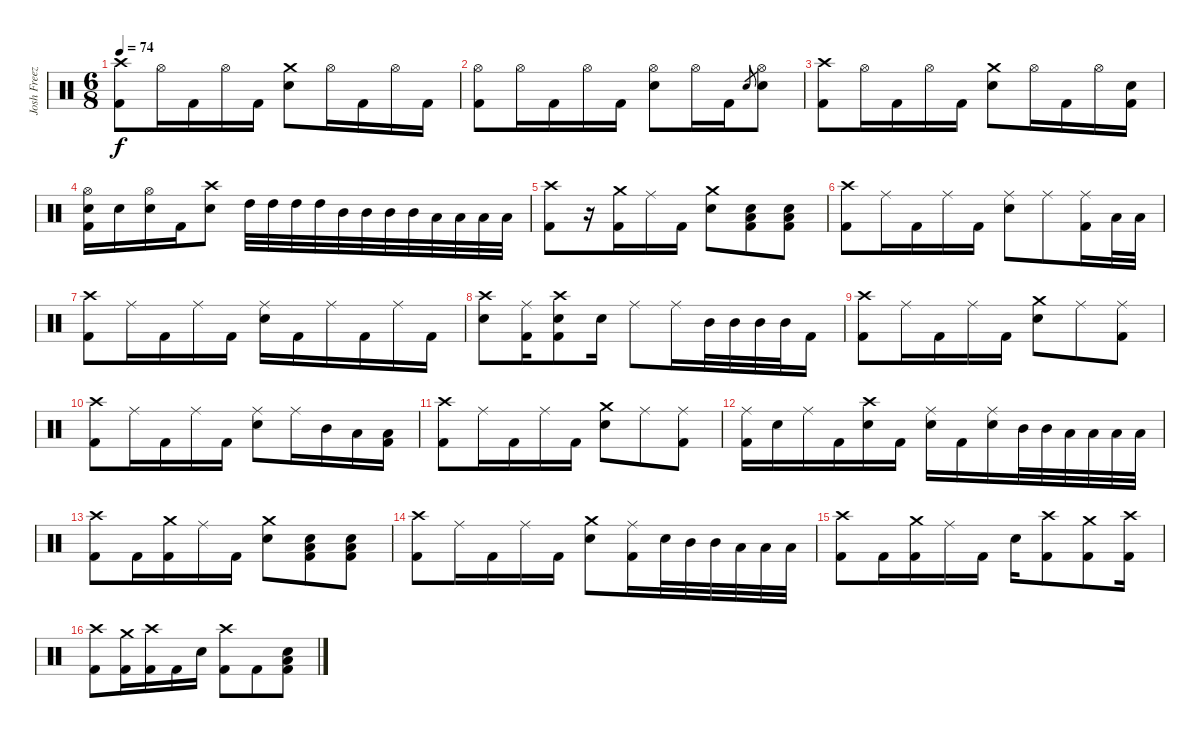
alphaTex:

\track ("Josh Freeze - Drums" "Josh Freez") {instrument percussion}
\staff {score}
\articulation defaults
\ts (6 8)
\tempo 74
\clef neutral
\ks c
("Crash high (hit)" "Kick (hit) 2").8{dy f} "Hi-Hat (open)".16 "Kick (hit) 2".16 "Hi-Hat (open)".16 "Kick (hit) 2".16 ("Crash medium (hit)" "Electric Snare (hit)").8 "Hi-Hat (open)".16 "Kick (hit) 2".16 "Hi-Hat (open)".16 "Kick (hit) 2".16 |
("Hi-Hat (open)" "Kick (hit) 2").8 "Hi-Hat (open)".16 "Kick (hit) 2".16 "Hi-Hat (open)".16 "Kick (hit) 2".16 ("Hi-Hat (open)" "Electric Snare (hit)").8 "Hi-Hat (open)".16 "Kick (hit) 2".16 "Electric Snare (hit)".8{gr} ("Hi-Hat (open)" "Electric Snare (hit)").8 |
("Crash high (hit)" "Kick (hit) 2").8 "Hi-Hat (open)".16 "Kick (hit) 2".16 "Hi-Hat (open)".16 "Kick (hit) 2".16 ("Crash medium (hit)" "Electric Snare (hit)").8 "Hi-Hat (open)".16 "Kick (hit) 2".16 "Hi-Hat (open)".16 ("Electric Snare (hit)" "Kick (hit) 2").16 |
("Hi-Hat (open)" "Electric Snare (hit)" "Kick (hit) 2").16 "Electric Snare (hit)".16 ("Hi-Hat (open)" "Electric Snare (hit)").16 "Kick (hit) 2".16 ("Crash high (hit)" "Electric Snare (hit)").8 "High Tom (hit)".32 "High Tom (hit)".32 "High Tom (hit)".32 "High Tom (hit)".32 "Mid Tom (hit)".32 "Mid Tom (hit)".32 "Mid Tom (hit)".32 "Mid Tom (hit)".32 "Low Tom (hit)".32 "Low Tom (hit)".32 "Low Tom (hit)".32 "Low Tom (hit)".32 |
("Crash high (hit)" "Kick (hit) 2").8 r.16 ("Crash medium (hit)" "Kick (hit) 2").16 "Ride (middle)".16 "Kick (hit) 2".16 ("Crash medium (hit)" "Electric Snare (hit)").8 ("Electric Snare (hit)" "Low Tom (hit)" "Kick (hit) 2").8 ("Electric Snare (hit)" "Low Tom (hit)" "Kick (hit) 2").8 |
("Crash high (hit)" "Kick (hit) 2").8 "Ride (middle)".16 "Kick (hit) 2".16 "Ride (middle)".16 "Kick (hit) 2".16 ("Ride (middle)" "Electric Snare (hit)").8 "Ride (middle)".8 ("Ride (middle)" "Kick (hit) 2").16 "Low Tom (hit)".32 "Low Tom (hit)".32 |
("Crash high (hit)" "Kick (hit) 2").8 "Ride (middle)".16 "Kick (hit) 2".16 "Ride (middle)".16 "Kick (hit) 2".16 ("Ride (middle)" "Electric Snare (hit)").16 "Kick (hit) 2".16 "Ride (middle)".16 "Kick (hit) 2".16 "Ride (middle)".16 "Kick (hit) 2".16 |
("Crash high (hit)" "Electric Snare (hit)").8 ("Ride (middle)" "Kick (hit) 2").16 ("Crash high (hit)" "Electric Snare (hit)" "Kick (hit) 2").8 "Electric Snare (hit)".16 "Ride (middle)".8 "Ride (middle)".16 "Mid Tom (hit)".32 "Mid Tom (hit)".32 "Mid Tom (hit)".32 "Mid Tom (hit)".32 "Kick (hit) 2".16 |
("Crash high (hit)" "Kick (hit) 2").8 "Ride (middle)".16 "Kick (hit) 2".16 "Ride (middle)".16 "Kick (hit) 2".16 ("Crash medium (hit)" "Electric Snare (hit)").8 "Ride (middle)".8 ("Ride (middle)" "Kick (hit) 2").8 |
("Crash high (hit)" "Kick (hit) 2").8 "Ride (middle)".16 "Kick (hit) 2".16 "Ride (middle)".16 "Kick (hit) 2".16 ("Ride (middle)" "Electric Snare (hit)").8 "Ride (middle)".16 "Mid Tom (hit)".16 "Low Tom (hit)".16 ("Low Tom (hit)" "Kick (hit) 2").16 |
("Crash high (hit)" "Kick (hit) 2").8 "Ride (middle)".16 "Kick (hit) 2".16 "Ride (middle)".16 "Kick (hit) 2".16 ("Crash medium (hit)" "Electric Snare (hit)").8 "Ride (middle)".8 ("Ride (middle)" "Kick (hit) 2").8 |
("Ride (middle)" "Kick (hit) 2").16 "Electric Snare (hit)".16 "Ride (middle)".16 "Kick (hit) 2".16 ("Crash high (hit)" "Electric Snare (hit)").16 "Kick (hit) 2".16 ("Ride (middle)" "Electric Snare (hit)").16 "Kick (hit) 2".16 ("Ride (middle)" "Electric Snare (hit)").16 "Mid Tom (hit)".32 "Mid Tom (hit)".32 "Low Tom (hit)".32 "Low Tom (hit)".32 "Low Tom (hit)".32 "Low Tom (hit)".32 |
("Crash high (hit)" "Kick (hit) 2").8 "Kick (hit) 2".16 ("Crash medium (hit)" "Kick (hit) 2").16 "Ride (middle)".16 "Kick (hit) 2".16 ("Crash medium (hit)" "Electric Snare (hit)").8 ("Electric Snare (hit)" "Low Tom (hit)" "Kick (hit) 2").8 ("Electric Snare (hit)" "Low Tom (hit)" "Kick (hit) 2").8 |
("Crash high (hit)" "Kick (hit) 2").8 "Ride (middle)".16 "Kick (hit) 2".16 "Ride (middle)".16 "Kick (hit) 2".16 ("Crash medium (hit)" "Electric Snare (hit)").8 ("Ride (middle)" "Kick (hit) 2").16 "Electric Snare (hit)".32 "Mid Tom (hit)".32 "Mid Tom (hit)".32 "Low Tom (hit)".32 "Low Tom (hit)".32 "Low Tom (hit)".32 |
("Crash high (hit)" "Kick (hit) 2").8 "Kick (hit) 2".16 ("Crash medium (hit)" "Kick (hit) 2").16 "Ride (middle)".16 "Kick (hit) 2".16 "Electric Snare (hit)".16 ("Crash high (hit)" "Kick (hit) 2").8 ("Crash medium (hit)" "Kick (hit) 2").8 ("Crash high (hit)" "Kick (hit) 2").16 |
("Crash high (hit)" "Kick (hit) 2").8 ("Crash medium (hit)" "Kick (hit) 2").16 ("Crash high (hit)" "Kick (hit) 2").16 "Kick (hit) 2".16 "Electric Snare (hit)".16 ("Crash high (hit)" "Kick (hit) 2").8 "Kick (hit) 2".8 ("Electric Snare (hit)" "Low Tom (hit)" "Kick (hit) 2").8
